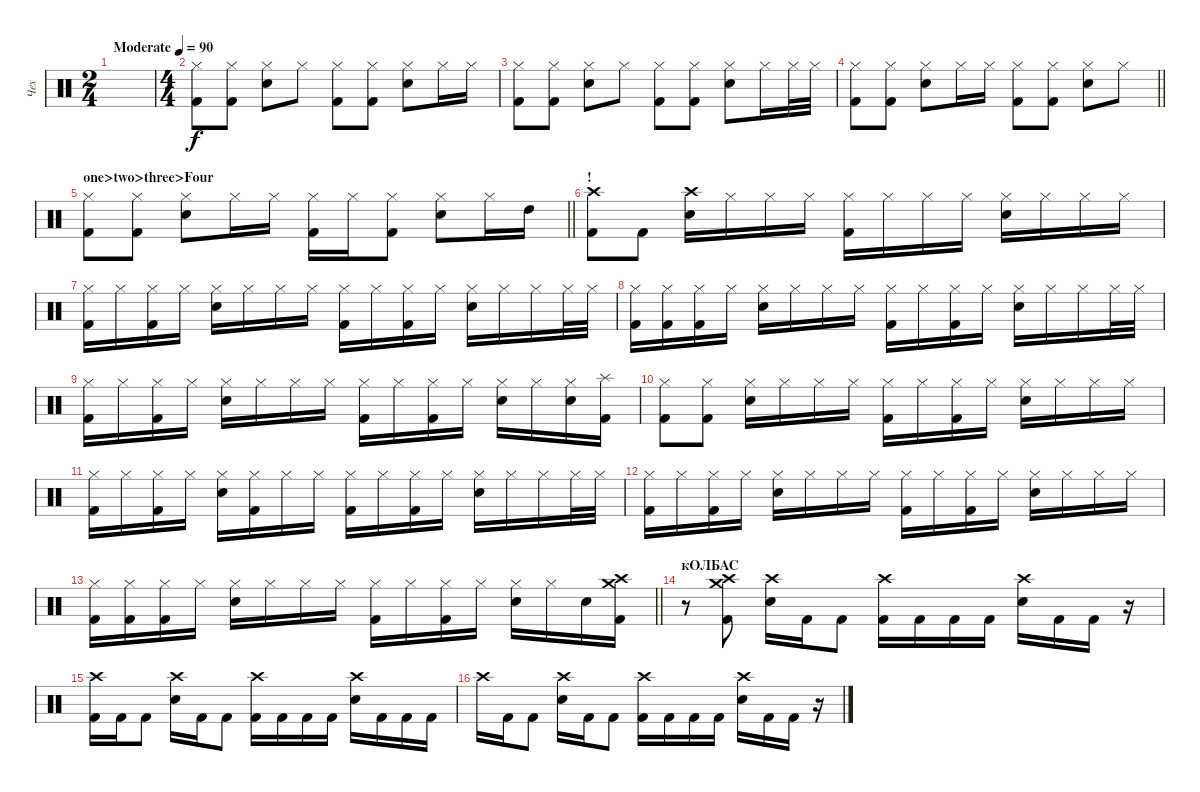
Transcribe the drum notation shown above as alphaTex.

\track ("Чех" "Чех") {instrument percussion}
\staff {score}
\articulation defaults
\ts (2 4)
\tempo (90 "Moderate")
\clef neutral
\ks c
|
\ts (4 4)
("Hi-Hat (closed)" "Kick (hit) 2").8 ("Hi-Hat (closed)" "Kick (hit) 2").8 ("Hi-Hat (closed)" "Electric Snare (hit)").8 "Hi-Hat (closed)".8 ("Hi-Hat (closed)" "Kick (hit) 2").8 ("Hi-Hat (closed)" "Kick (hit) 2").8 ("Hi-Hat (closed)" "Electric Snare (hit)").8 "Hi-Hat (closed)".16 "Hi-Hat (closed)".16 |
("Hi-Hat (closed)" "Kick (hit) 2").8 ("Hi-Hat (closed)" "Kick (hit) 2").8 ("Hi-Hat (closed)" "Electric Snare (hit)").8 "Hi-Hat (closed)".8 ("Hi-Hat (closed)" "Kick (hit) 2").8 ("Hi-Hat (closed)" "Kick (hit) 2").8 ("Hi-Hat (closed)" "Electric Snare (hit)").8 "Hi-Hat (closed)".16 "Hi-Hat (closed)".32 "Hi-Hat (closed)".32 |
\barLineRight lightlight
("Hi-Hat (closed)" "Kick (hit) 2").8 ("Hi-Hat (closed)" "Kick (hit) 2").8 ("Hi-Hat (closed)" "Electric Snare (hit)").8 "Hi-Hat (closed)".16 "Hi-Hat (closed)".16 ("Hi-Hat (closed)" "Kick (hit) 2").8 ("Hi-Hat (closed)" "Kick (hit) 2").8 ("Hi-Hat (closed)" "Electric Snare (hit)").8 "Hi-Hat (closed)".8 |
\section ("" "one>two>three>Four")
\barLineRight lightlight
("Hi-Hat (closed)" "Kick (hit) 2").8 ("Hi-Hat (closed)" "Kick (hit) 2").8 ("Hi-Hat (closed)" "Electric Snare (hit)").8 "Hi-Hat (closed)".16 "Hi-Hat (closed)".16 ("Hi-Hat (closed)" "Kick (hit) 2").16 "Hi-Hat (closed)".16 ("Hi-Hat (closed)" "Kick (hit) 2").8 ("Hi-Hat (closed)" "Electric Snare (hit)").8 "Hi-Hat (closed)".16 "High Tom (hit)".16 |
\section ("" "!")
("Crash high (hit)" "Kick (hit) 2").8 "Kick (hit) 2".8 ("Crash high (hit)" "Electric Snare (hit)").16 "Hi-Hat (closed)".16 "Hi-Hat (closed)".16 "Hi-Hat (closed)".16 ("Hi-Hat (closed)" "Kick (hit) 2").16 "Hi-Hat (closed)".16 "Hi-Hat (closed)".16 "Hi-Hat (closed)".16 ("Hi-Hat (closed)" "Electric Snare (hit)").16 "Hi-Hat (closed)".16 "Hi-Hat (closed)".16 "Hi-Hat (closed)".16 |
("Hi-Hat (closed)" "Kick (hit) 2").16 "Hi-Hat (closed)".16 ("Hi-Hat (closed)" "Kick (hit) 2").16 "Hi-Hat (closed)".16 ("Hi-Hat (closed)" "Electric Snare (hit)").16 "Hi-Hat (closed)".16 "Hi-Hat (closed)".16 "Hi-Hat (closed)".16 ("Hi-Hat (closed)" "Kick (hit) 2").16 "Hi-Hat (closed)".16 ("Hi-Hat (closed)" "Kick (hit) 2").16 "Hi-Hat (closed)".16 ("Hi-Hat (closed)" "Electric Snare (hit)").16 "Hi-Hat (closed)".16 "Hi-Hat (closed)".16 "Hi-Hat (closed)".32 "Hi-Hat (closed)".32 |
("Hi-Hat (closed)" "Kick (hit) 2").16 ("Hi-Hat (closed)" "Kick (hit) 2").16 ("Hi-Hat (closed)" "Kick (hit) 2").16 "Hi-Hat (closed)".16 ("Hi-Hat (closed)" "Electric Snare (hit)").16 "Hi-Hat (closed)".16 "Hi-Hat (closed)".16 "Hi-Hat (closed)".16 ("Hi-Hat (closed)" "Kick (hit) 2").16 "Hi-Hat (closed)".16 ("Hi-Hat (closed)" "Kick (hit) 2").16 "Hi-Hat (closed)".16 ("Hi-Hat (closed)" "Electric Snare (hit)").16 "Hi-Hat (closed)".16 "Hi-Hat (closed)".16 "Hi-Hat (closed)".32 "Hi-Hat (closed)".32 |
("Hi-Hat (closed)" "Kick (hit) 2").16 "Hi-Hat (closed)".16 ("Hi-Hat (closed)" "Kick (hit) 2").16 "Hi-Hat (closed)".16 ("Hi-Hat (closed)" "Electric Snare (hit)").16 "Hi-Hat (closed)".16 "Hi-Hat (closed)".16 "Hi-Hat (closed)".16 ("Hi-Hat (closed)" "Kick (hit) 2").16 "Hi-Hat (closed)".16 ("Hi-Hat (closed)" "Kick (hit) 2").16 "Hi-Hat (closed)".16 ("Hi-Hat (closed)" "Electric Snare (hit)").16 "Hi-Hat (closed)".16 ("Hi-Hat (closed)" "Electric Snare (hit)").16 ("Splash (hit)" "Kick (hit) 2").16 |
("Hi-Hat (closed)" "Kick (hit) 2").8 ("Hi-Hat (closed)" "Kick (hit) 2").8 ("Hi-Hat (closed)" "Electric Snare (hit)").16 "Hi-Hat (closed)".16 "Hi-Hat (closed)".16 "Hi-Hat (closed)".16 ("Hi-Hat (closed)" "Kick (hit) 2").16 "Hi-Hat (closed)".16 ("Hi-Hat (closed)" "Kick (hit) 2").16 "Hi-Hat (closed)".16 ("Hi-Hat (closed)" "Electric Snare (hit)").16 "Hi-Hat (closed)".16 "Hi-Hat (closed)".16 "Hi-Hat (closed)".16 |
("Hi-Hat (closed)" "Kick (hit) 2").16 "Hi-Hat (closed)".16 ("Hi-Hat (closed)" "Kick (hit) 2").16 "Hi-Hat (closed)".16 ("Hi-Hat (closed)" "Electric Snare (hit)").16 ("Hi-Hat (closed)" "Kick (hit) 2").16 "Hi-Hat (closed)".16 "Hi-Hat (closed)".16 ("Hi-Hat (closed)" "Kick (hit) 2").16 "Hi-Hat (closed)".16 ("Hi-Hat (closed)" "Kick (hit) 2").16 "Hi-Hat (closed)".16 ("Hi-Hat (closed)" "Electric Snare (hit)").16 "Hi-Hat (closed)".16 "Hi-Hat (closed)".16 "Hi-Hat (closed)".32 "Hi-Hat (closed)".32 |
("Hi-Hat (closed)" "Kick (hit) 2").16 "Hi-Hat (closed)".16 ("Hi-Hat (closed)" "Kick (hit) 2").16 "Hi-Hat (closed)".16 ("Hi-Hat (closed)" "Electric Snare (hit)").16 "Hi-Hat (closed)".16 "Hi-Hat (closed)".16 "Hi-Hat (closed)".16 ("Hi-Hat (closed)" "Kick (hit) 2").16 "Hi-Hat (closed)".16 ("Hi-Hat (closed)" "Kick (hit) 2").16 "Hi-Hat (closed)".16 ("Hi-Hat (closed)" "Electric Snare (hit)").16 "Hi-Hat (closed)".16 "Hi-Hat (closed)".16 "Hi-Hat (closed)".16 |
\barLineRight lightlight
("Hi-Hat (closed)" "Kick (hit) 2").16 ("Hi-Hat (closed)" "Kick (hit) 2").16 ("Hi-Hat (closed)" "Kick (hit) 2").16 "Hi-Hat (closed)".16 ("Hi-Hat (closed)" "Electric Snare (hit)").16 "Hi-Hat (closed)".16 "Hi-Hat (closed)".16 "Hi-Hat (closed)".16 ("Hi-Hat (closed)" "Kick (hit) 2").16 "Hi-Hat (closed)".16 ("Hi-Hat (closed)" "Kick (hit) 2").16 "Hi-Hat (closed)".16 ("Hi-Hat (closed)" "Electric Snare (hit)").16 "Hi-Hat (closed)".16 "Electric Snare (hit)".16 ("Crash high (hit)" "Crash medium (hit)" "Kick (hit) 2").16 |
\section ("" "кОЛБАС")
r.8 ("Crash high (hit)" "Crash medium (hit)" "Kick (hit) 2").8 ("Crash high (hit)" "Electric Snare (hit)").16 "Kick (hit) 2".16 "Kick (hit) 2".8 ("Crash high (hit)" "Kick (hit) 2").16 "Kick (hit) 2".16 "Kick (hit) 2".16 "Kick (hit) 2".16 ("Crash high (hit)" "Electric Snare (hit)").16 "Kick (hit) 2".16 "Kick (hit) 2".16 r.16 |
("Crash high (hit)" "Kick (hit) 2").16 "Kick (hit) 2".16 "Kick (hit) 2".8 ("Crash high (hit)" "Electric Snare (hit)").16 "Kick (hit) 2".16 "Kick (hit) 2".8 ("Crash high (hit)" "Kick (hit) 2").16 "Kick (hit) 2".16 "Kick (hit) 2".16 "Kick (hit) 2".16 ("Crash high (hit)" "Electric Snare (hit)").16 "Kick (hit) 2".16 "Kick (hit) 2".16 "Kick (hit) 2".16 |
"Crash high (hit)".16 "Kick (hit) 2".16 "Kick (hit) 2".8 ("Crash high (hit)" "Electric Snare (hit)").16 "Kick (hit) 2".16 "Kick (hit) 2".8 ("Crash high (hit)" "Kick (hit) 2").16 "Kick (hit) 2".16 "Kick (hit) 2".16 "Kick (hit) 2".16 ("Crash high (hit)" "Electric Snare (hit)").16 "Kick (hit) 2".16 "Kick (hit) 2".16 r.16
